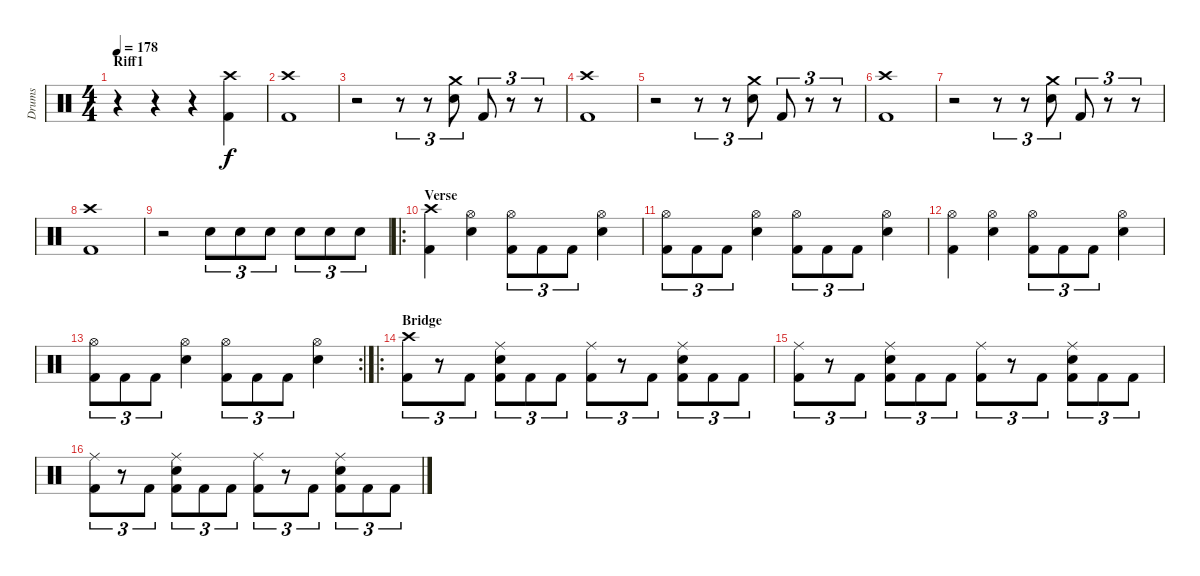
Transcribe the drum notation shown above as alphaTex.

\track ("Drums" "Drums") {instrument percussion}
\staff {score}
\articulation defaults
\ts (4 4)
\section ("" "Riff1")
\tempo 178
\clef neutral
\ks c
r.4{dy f} r.4 r.4 ("Crash high (hit)" "Kick (hit) 2").4 |
("Crash high (hit)" "Kick (hit) 2").1 |
r.2 r.8{tu (3 2)} r.8{tu (3 2)} ("Crash medium (hit)" "Electric Snare (hit)").8{tu (3 2)} "Kick (hit) 2".8{tu (3 2)} r.8{tu (3 2)} r.8{tu (3 2)} |
("Crash high (hit)" "Kick (hit) 2").1 |
r.2 r.8{tu (3 2)} r.8{tu (3 2)} ("Crash medium (hit)" "Electric Snare (hit)").8{tu (3 2)} "Kick (hit) 2".8{tu (3 2)} r.8{tu (3 2)} r.8{tu (3 2)} |
("Crash high (hit)" "Kick (hit) 2").1 |
r.2 r.8{tu (3 2)} r.8{tu (3 2)} ("Crash medium (hit)" "Electric Snare (hit)").8{tu (3 2)} "Kick (hit) 2".8{tu (3 2)} r.8{tu (3 2)} r.8{tu (3 2)} |
("Crash high (hit)" "Kick (hit) 2").1 |
r.2 "Electric Snare (hit)".8{tu (3 2)} "Electric Snare (hit)".8{tu (3 2)} "Electric Snare (hit)".8{tu (3 2)} "Electric Snare (hit)".8{tu (3 2)} "Electric Snare (hit)".8{tu (3 2)} "Electric Snare (hit)".8{tu (3 2)} |
\ro
\section ("" "Verse")
("Crash high (hit)" "Kick (hit) 2").4 ("Hi-Hat (open)" "Electric Snare (hit)").4 ("Hi-Hat (open)" "Kick (hit) 2").8{tu (3 2)} "Kick (hit) 2".8{tu (3 2)} "Kick (hit) 2".8{tu (3 2)} ("Hi-Hat (open)" "Electric Snare (hit)").4 |
("Hi-Hat (open)" "Kick (hit) 2").8{tu (3 2)} "Kick (hit) 2".8{tu (3 2)} "Kick (hit) 2".8{tu (3 2)} ("Hi-Hat (open)" "Electric Snare (hit)").4 ("Hi-Hat (open)" "Kick (hit) 2").8{tu (3 2)} "Kick (hit) 2".8{tu (3 2)} "Kick (hit) 2".8{tu (3 2)} ("Hi-Hat (open)" "Electric Snare (hit)").4 |
("Hi-Hat (open)" "Kick (hit) 2").4 ("Hi-Hat (open)" "Electric Snare (hit)").4 ("Hi-Hat (open)" "Kick (hit) 2").8{tu (3 2)} "Kick (hit) 2".8{tu (3 2)} "Kick (hit) 2".8{tu (3 2)} ("Hi-Hat (open)" "Electric Snare (hit)").4 |
\rc 2
("Hi-Hat (open)" "Kick (hit) 2").8{tu (3 2)} "Kick (hit) 2".8{tu (3 2)} "Kick (hit) 2".8{tu (3 2)} ("Hi-Hat (open)" "Electric Snare (hit)").4 ("Hi-Hat (open)" "Kick (hit) 2").8{tu (3 2)} "Kick (hit) 2".8{tu (3 2)} "Kick (hit) 2".8{tu (3 2)} ("Hi-Hat (open)" "Electric Snare (hit)").4 |
\ro
\section ("" "Bridge")
("Crash high (hit)" "Kick (hit) 2").8{tu (3 2)} r.8{tu (3 2)} "Kick (hit) 2".8{tu (3 2)} ("Ride (middle)" "Electric Snare (hit)" "Kick (hit) 2").8{tu (3 2)} "Kick (hit) 2".8{tu (3 2)} "Kick (hit) 2".8{tu (3 2)} ("Ride (middle)" "Kick (hit) 2").8{tu (3 2)} r.8{tu (3 2)} "Kick (hit) 2".8{tu (3 2)} ("Ride (middle)" "Electric Snare (hit)" "Kick (hit) 2").8{tu (3 2)} "Kick (hit) 2".8{tu (3 2)} "Kick (hit) 2".8{tu (3 2)} |
("Ride (middle)" "Kick (hit) 2").8{tu (3 2)} r.8{tu (3 2)} "Kick (hit) 2".8{tu (3 2)} ("Ride (middle)" "Electric Snare (hit)" "Kick (hit) 2").8{tu (3 2)} "Kick (hit) 2".8{tu (3 2)} "Kick (hit) 2".8{tu (3 2)} ("Ride (middle)" "Kick (hit) 2").8{tu (3 2)} r.8{tu (3 2)} "Kick (hit) 2".8{tu (3 2)} ("Ride (middle)" "Electric Snare (hit)" "Kick (hit) 2").8{tu (3 2)} "Kick (hit) 2".8{tu (3 2)} "Kick (hit) 2".8{tu (3 2)} |
("Ride (middle)" "Kick (hit) 2").8{tu (3 2)} r.8{tu (3 2)} "Kick (hit) 2".8{tu (3 2)} ("Ride (middle)" "Electric Snare (hit)" "Kick (hit) 2").8{tu (3 2)} "Kick (hit) 2".8{tu (3 2)} "Kick (hit) 2".8{tu (3 2)} ("Ride (middle)" "Kick (hit) 2").8{tu (3 2)} r.8{tu (3 2)} "Kick (hit) 2".8{tu (3 2)} ("Ride (middle)" "Electric Snare (hit)" "Kick (hit) 2").8{tu (3 2)} "Kick (hit) 2".8{tu (3 2)} "Kick (hit) 2".8{tu (3 2)}
